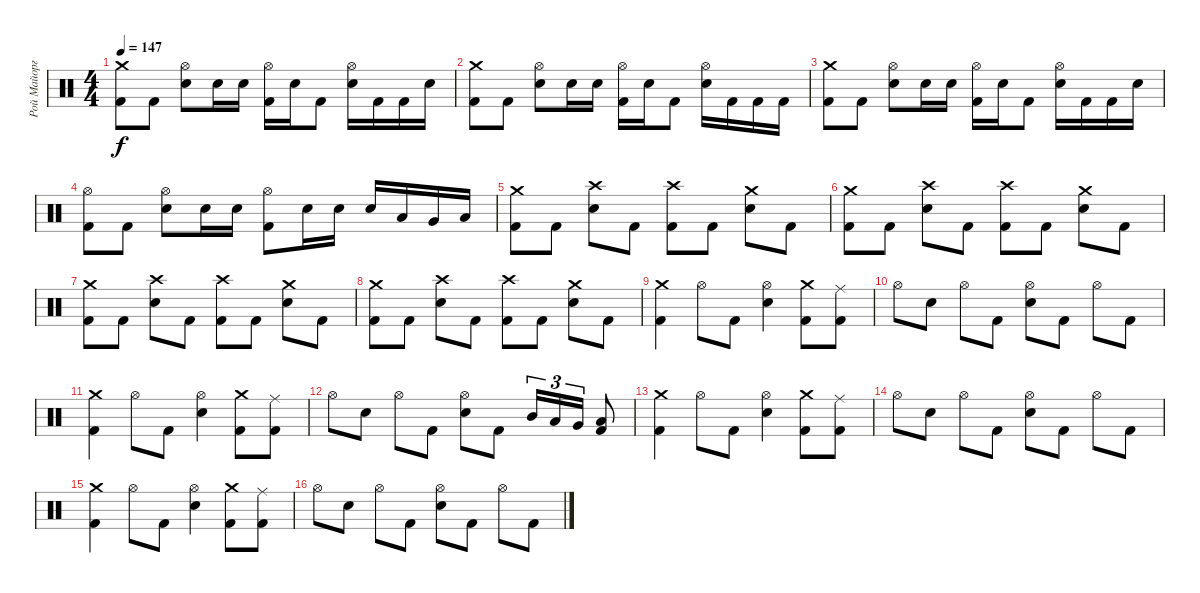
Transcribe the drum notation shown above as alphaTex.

\track ("Рой Майорга" "Рой Майорг") {instrument percussion}
\staff {score}
\articulation defaults
\ts (4 4)
\tempo 147
\clef neutral
\ks c
("Crash medium (hit)" "Kick (hit) 2").8{dy f} "Kick (hit) 2".8 ("Hi-Hat (open)" "Electric Snare (hit)").8 "Electric Snare (hit)".16 "Electric Snare (hit)".16 ("Hi-Hat (open)" "Kick (hit) 2").16 "Electric Snare (hit)".16 "Kick (hit) 2".8 ("Hi-Hat (open)" "Electric Snare (hit)").16 "Kick (hit) 2".16 "Kick (hit) 2".16 "Electric Snare (hit)".16 |
("Crash medium (hit)" "Kick (hit) 2").8 "Kick (hit) 2".8 ("Hi-Hat (open)" "Electric Snare (hit)").8 "Electric Snare (hit)".16 "Electric Snare (hit)".16 ("Hi-Hat (open)" "Kick (hit) 2").16 "Electric Snare (hit)".16 "Kick (hit) 2".8 ("Hi-Hat (open)" "Electric Snare (hit)").16 "Kick (hit) 2".16 "Kick (hit) 2".16 "Kick (hit) 2".16 |
("Crash medium (hit)" "Kick (hit) 2").8 "Kick (hit) 2".8 ("Hi-Hat (open)" "Electric Snare (hit)").8 "Electric Snare (hit)".16 "Electric Snare (hit)".16 ("Hi-Hat (open)" "Kick (hit) 2").16 "Electric Snare (hit)".16 "Kick (hit) 2".8 ("Hi-Hat (open)" "Electric Snare (hit)").16 "Kick (hit) 2".16 "Kick (hit) 2".16 "Electric Snare (hit)".16 |
("Hi-Hat (open)" "Kick (hit) 2").8 "Kick (hit) 2".8 ("Hi-Hat (open)" "Electric Snare (hit)").8 "Electric Snare (hit)".16 "Electric Snare (hit)".16 ("Hi-Hat (open)" "Kick (hit) 2").8 "Electric Snare (hit)".16 "Electric Snare (hit)".16 "Electric Snare (hit)".16 "Low Tom (hit)".16 "Very Low Tom (hit)".16 "Low Floor Tom (hit)".16 |
("Crash medium (hit)" "Kick (hit) 2").8 "Kick (hit) 2".8 ("Crash high (hit)" "Electric Snare (hit)").8 "Kick (hit) 2".8 ("Crash high (hit)" "Kick (hit) 2").8 "Kick (hit) 2".8 ("Crash medium (hit)" "Electric Snare (hit)").8 "Kick (hit) 2".8 |
("Crash medium (hit)" "Kick (hit) 2").8 "Kick (hit) 2".8 ("Crash high (hit)" "Electric Snare (hit)").8 "Kick (hit) 2".8 ("Crash high (hit)" "Kick (hit) 2").8 "Kick (hit) 2".8 ("Crash medium (hit)" "Electric Snare (hit)").8 "Kick (hit) 2".8 |
("Crash medium (hit)" "Kick (hit) 2").8 "Kick (hit) 2".8 ("Crash high (hit)" "Electric Snare (hit)").8 "Kick (hit) 2".8 ("Crash high (hit)" "Kick (hit) 2").8 "Kick (hit) 2".8 ("Crash medium (hit)" "Electric Snare (hit)").8 "Kick (hit) 2".8 |
("Crash medium (hit)" "Kick (hit) 2").8 "Kick (hit) 2".8 ("Crash high (hit)" "Electric Snare (hit)").8 "Kick (hit) 2".8 ("Crash high (hit)" "Kick (hit) 2").8 "Kick (hit) 2".8 ("Crash medium (hit)" "Electric Snare (hit)").8 "Kick (hit) 2".8 |
("Crash medium (hit)" "Kick (hit) 2").4 "Hi-Hat (open)".8 "Kick (hit) 2".8 ("Hi-Hat (open)" "Electric Snare (hit)").4 ("Crash medium (hit)" "Kick (hit) 2").8 ("Ride (middle)" "Kick (hit) 2").8 |
"Hi-Hat (open)".8 "Electric Snare (hit)".8 "Hi-Hat (open)".8 "Kick (hit) 2".8 ("Hi-Hat (open)" "Electric Snare (hit)").8 "Kick (hit) 2".8 "Hi-Hat (open)".8 "Kick (hit) 2".8 |
("Crash medium (hit)" "Kick (hit) 2").4 "Hi-Hat (open)".8 "Kick (hit) 2".8 ("Hi-Hat (open)" "Electric Snare (hit)").4 ("Crash medium (hit)" "Kick (hit) 2").8 ("Ride (middle)" "Kick (hit) 2").8 |
"Hi-Hat (open)".8 "Electric Snare (hit)".8 "Hi-Hat (open)".8 "Kick (hit) 2".8 ("Hi-Hat (open)" "Electric Snare (hit)").8 "Kick (hit) 2".8 "Mid Tom (hit)".16{tu (3 2)} "Low Tom (hit)".16{tu (3 2)} "Very Low Tom (hit)".16{tu (3 2)} ("Low Floor Tom (hit)" "Kick (hit) 2").8 |
("Crash medium (hit)" "Kick (hit) 2").4 "Hi-Hat (open)".8 "Kick (hit) 2".8 ("Hi-Hat (open)" "Electric Snare (hit)").4 ("Crash medium (hit)" "Kick (hit) 2").8 ("Ride (middle)" "Kick (hit) 2").8 |
"Hi-Hat (open)".8 "Electric Snare (hit)".8 "Hi-Hat (open)".8 "Kick (hit) 2".8 ("Hi-Hat (open)" "Electric Snare (hit)").8 "Kick (hit) 2".8 "Hi-Hat (open)".8 "Kick (hit) 2".8 |
("Crash medium (hit)" "Kick (hit) 2").4 "Hi-Hat (open)".8 "Kick (hit) 2".8 ("Hi-Hat (open)" "Electric Snare (hit)").4 ("Crash medium (hit)" "Kick (hit) 2").8 ("Ride (middle)" "Kick (hit) 2").8 |
"Hi-Hat (open)".8 "Electric Snare (hit)".8 "Hi-Hat (open)".8 "Kick (hit) 2".8 ("Hi-Hat (open)" "Electric Snare (hit)").8 "Kick (hit) 2".8 "Hi-Hat (open)".8 "Kick (hit) 2".8
